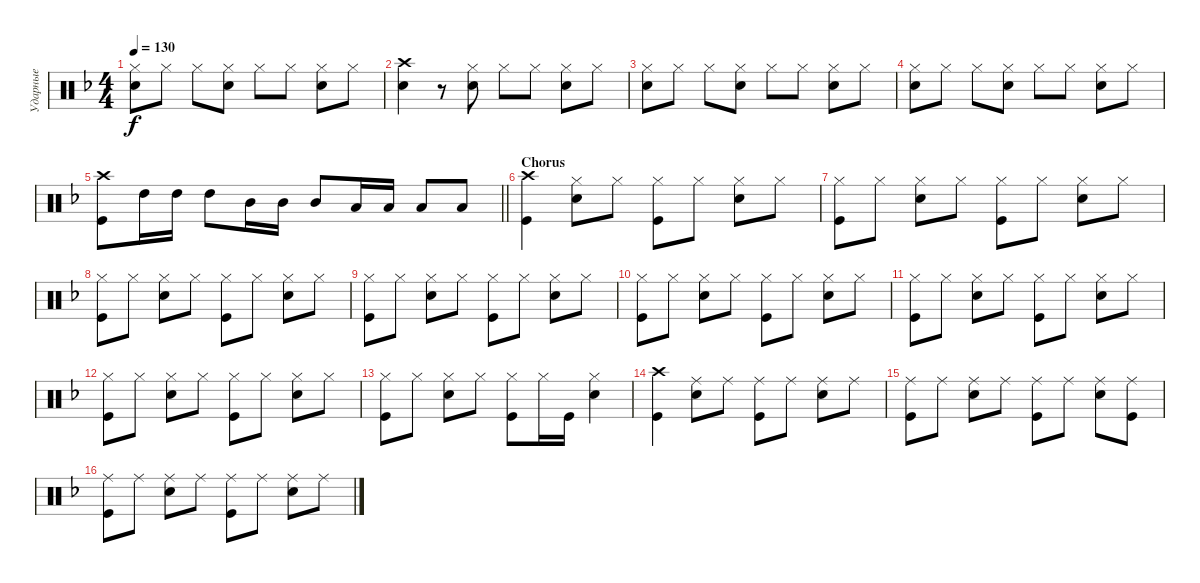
\track ("Ударные" "Ударные") {instrument percussion}
\staff {score}
\articulation defaults
\ts (4 4)
\tempo 130
\clef neutral
\ks dminor
("Snare (hit) 2" "Hi-Hat (closed)").8{dy f} "Hi-Hat (closed)".8 "Hi-Hat (closed)".8 ("Hi-Hat (closed)" "Snare (hit) 2").8 "Hi-Hat (closed)".8 "Hi-Hat (closed)".8 ("Hi-Hat (closed)" "Snare (hit) 2").8 "Hi-Hat (closed)".8 |
("Snare (hit) 2" "Crash high (hit)").4 r.8 ("Hi-Hat (closed)" "Snare (hit) 2").8 "Hi-Hat (closed)".8 "Hi-Hat (closed)".8 ("Hi-Hat (closed)" "Snare (hit) 2").8 "Hi-Hat (closed)".8 |
("Snare (hit) 2" "Hi-Hat (closed)").8 "Hi-Hat (closed)".8 "Hi-Hat (closed)".8 ("Hi-Hat (closed)" "Snare (hit) 2").8 "Hi-Hat (closed)".8 "Hi-Hat (closed)".8 ("Hi-Hat (closed)" "Snare (hit) 2").8 "Hi-Hat (closed)".8 |
("Snare (hit) 2" "Hi-Hat (closed)").8 "Hi-Hat (closed)".8 "Hi-Hat (closed)".8 ("Hi-Hat (closed)" "Snare (hit) 2").8 "Hi-Hat (closed)".8 "Hi-Hat (closed)".8 ("Hi-Hat (closed)" "Snare (hit) 2").8 "Hi-Hat (closed)".8 |
\barLineRight lightlight
("Kick (hit)" "Crash high (hit)").8 "High Tom (hit)".16 "High Tom (hit)".16 "High Tom (hit)".8 "Mid Tom (hit)".16 "Mid Tom (hit)".16 "Mid Tom (hit)".8 "Low Tom (hit)".16 "Low Tom (hit)".16 "Low Tom (hit)".8 "Low Tom (hit)".8 |
\section ("" "Chorus")
("Kick (hit)" "Crash high (hit)").4 ("Hi-Hat (closed)" "Snare (hit) 2").8 "Hi-Hat (closed)".8 ("Hi-Hat (closed)" "Kick (hit)").8 "Hi-Hat (closed)".8 ("Hi-Hat (closed)" "Snare (hit) 2").8 "Hi-Hat (closed)".8 |
("Kick (hit)" "Hi-Hat (closed)").8 "Hi-Hat (closed)".8 ("Hi-Hat (closed)" "Snare (hit) 2").8 "Hi-Hat (closed)".8 ("Hi-Hat (closed)" "Kick (hit)").8 "Hi-Hat (closed)".8 ("Hi-Hat (closed)" "Snare (hit) 2").8 "Hi-Hat (closed)".8 |
("Kick (hit)" "Hi-Hat (closed)").8 "Hi-Hat (closed)".8 ("Hi-Hat (closed)" "Snare (hit) 2").8 "Hi-Hat (closed)".8 ("Hi-Hat (closed)" "Kick (hit)").8 "Hi-Hat (closed)".8 ("Hi-Hat (closed)" "Snare (hit) 2").8 "Hi-Hat (closed)".8 |
("Kick (hit)" "Hi-Hat (closed)").8 "Hi-Hat (closed)".8 ("Hi-Hat (closed)" "Snare (hit) 2").8 "Hi-Hat (closed)".8 ("Hi-Hat (closed)" "Kick (hit)").8 "Hi-Hat (closed)".8 ("Hi-Hat (closed)" "Snare (hit) 2").8 "Hi-Hat (closed)".8 |
("Kick (hit)" "Hi-Hat (closed)").8 "Hi-Hat (closed)".8 ("Hi-Hat (closed)" "Snare (hit) 2").8 "Hi-Hat (closed)".8 ("Hi-Hat (closed)" "Kick (hit)").8 "Hi-Hat (closed)".8 ("Hi-Hat (closed)" "Snare (hit) 2").8 "Hi-Hat (closed)".8 |
("Kick (hit)" "Hi-Hat (closed)").8 "Hi-Hat (closed)".8 ("Hi-Hat (closed)" "Snare (hit) 2").8 "Hi-Hat (closed)".8 ("Hi-Hat (closed)" "Kick (hit)").8 "Hi-Hat (closed)".8 ("Hi-Hat (closed)" "Snare (hit) 2").8 "Hi-Hat (closed)".8 |
("Kick (hit)" "Hi-Hat (closed)").8 "Hi-Hat (closed)".8 ("Hi-Hat (closed)" "Snare (hit) 2").8 "Hi-Hat (closed)".8 ("Hi-Hat (closed)" "Kick (hit)").8 "Hi-Hat (closed)".8 ("Hi-Hat (closed)" "Snare (hit) 2").8 "Hi-Hat (closed)".8 |
("Kick (hit)" "Hi-Hat (closed)").8 "Hi-Hat (closed)".8 ("Hi-Hat (closed)" "Snare (hit) 2").8 "Hi-Hat (closed)".8 ("Hi-Hat (closed)" "Kick (hit)").8 "Hi-Hat (closed)".16 "Kick (hit)".16 ("Hi-Hat (closed)" "Snare (hit) 2").4 |
("Crash high (hit)" "Kick (hit)").4 ("Ride (middle)" "Snare (hit) 2").8 "Ride (middle)".8 ("Ride (middle)" "Kick (hit)").8 "Ride (middle)".8 ("Ride (middle)" "Snare (hit) 2").8 "Ride (middle)".8 |
("Ride (middle)" "Kick (hit)").8 "Ride (middle)".8 ("Ride (middle)" "Snare (hit) 2").8 "Ride (middle)".8 ("Ride (middle)" "Kick (hit)").8 "Ride (middle)".8 ("Ride (middle)" "Snare (hit) 2").8 ("Ride (middle)" "Kick (hit)").8 |
("Ride (middle)" "Kick (hit)").8 "Ride (middle)".8 ("Ride (middle)" "Snare (hit) 2").8 "Ride (middle)".8 ("Ride (middle)" "Kick (hit)").8 "Ride (middle)".8 ("Ride (middle)" "Snare (hit) 2").8 "Ride (middle)".8
